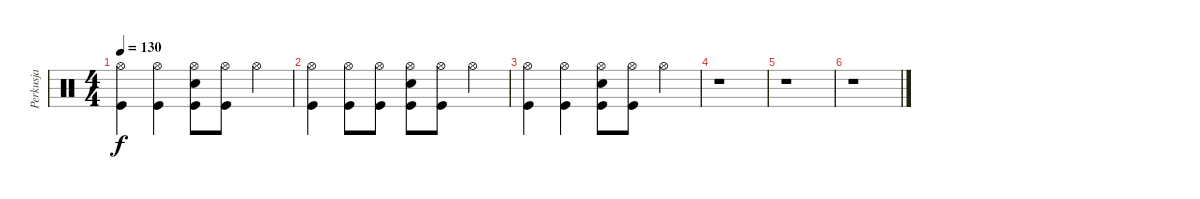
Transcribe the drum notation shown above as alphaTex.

\track ("Perkusja" "Perkusja") {instrument percussion}
\staff {score}
\articulation defaults
\ts (4 4)
\tempo 130
\clef neutral
\ks c
("Hi-Hat (open)" "Kick (hit)").4{dy f} ("Hi-Hat (open)" "Kick (hit)").4 ("Hi-Hat (open)" "Metronome (bell)" "Kick (hit)").8 ("Hi-Hat (open)" "Kick (hit)").8 "Hi-Hat (open)".4 |
("Hi-Hat (open)" "Kick (hit)").4 ("Hi-Hat (open)" "Kick (hit)").8 ("Hi-Hat (open)" "Kick (hit)").8 ("Hi-Hat (open)" "Metronome (bell)" "Kick (hit)").8 ("Hi-Hat (open)" "Kick (hit)").8 "Hi-Hat (open)".4 |
("Hi-Hat (open)" "Kick (hit)").4 ("Hi-Hat (open)" "Kick (hit)").4 ("Hi-Hat (open)" "Metronome (bell)" "Kick (hit)").8 ("Hi-Hat (open)" "Kick (hit)").8 "Hi-Hat (open)".4 |
r.1 |
r.1 |
r.1
